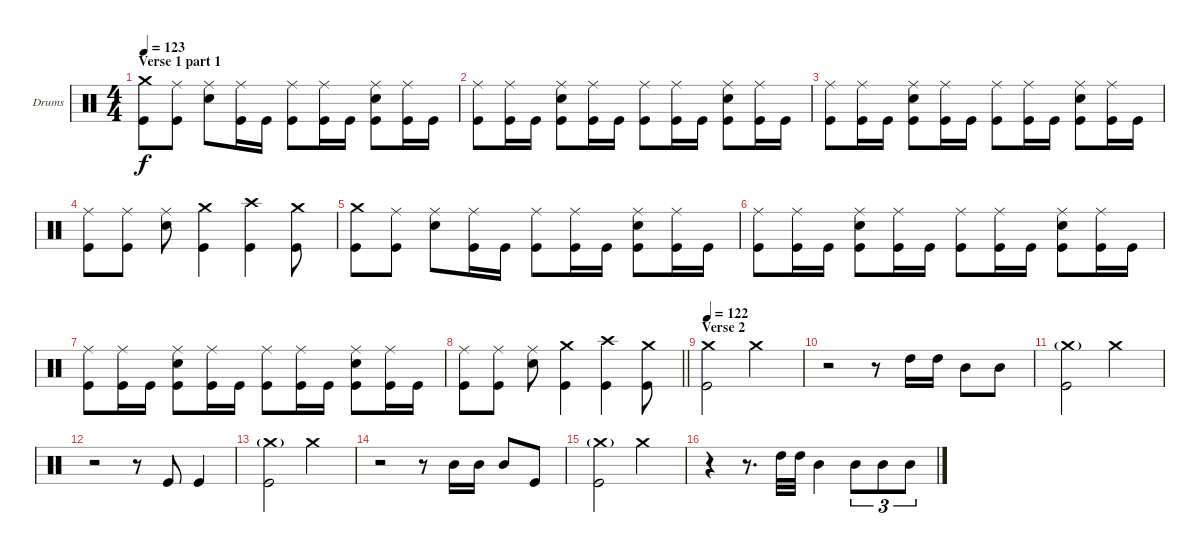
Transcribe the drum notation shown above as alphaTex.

\bracketExtendMode groupsimilarinstruments
\firstSystemTrackNameOrientation horizontal
\otherSystemsTrackNameOrientation horizontal
\track ("Drumkit" "Drums") {instrument percussion}
\staff {score}
\articulation defaults
\ts (4 4)
\section ("" "Verse 1 part 1")
\tempo 123
\clef neutral
\ks c
("Crash medium (hit)" "Kick (hit)").8{dy f} ("Ride (middle)" "Kick (hit)").8 ("Ride (middle)" "Snare (hit) 2").8 ("Ride (middle)" "Kick (hit)").16 "Kick (hit)".16 ("Ride (middle)" "Kick (hit)").8 ("Ride (middle)" "Kick (hit)").16 "Kick (hit)".16 ("Ride (middle)" "Snare (hit) 2" "Kick (hit)").8 ("Ride (middle)" "Kick (hit)").16 "Kick (hit)".16 |
("Ride (middle)" "Kick (hit)").8 ("Ride (middle)" "Kick (hit)").16 "Kick (hit)".16 ("Ride (middle)" "Snare (hit) 2" "Kick (hit)").8 ("Ride (middle)" "Kick (hit)").16 "Kick (hit)".16 ("Ride (middle)" "Kick (hit)").8 ("Ride (middle)" "Kick (hit)").16 "Kick (hit)".16 ("Ride (middle)" "Snare (hit) 2" "Kick (hit)").8 ("Ride (middle)" "Kick (hit)").16 "Kick (hit)".16 |
("Ride (middle)" "Kick (hit)").8 ("Ride (middle)" "Kick (hit)").16 "Kick (hit)".16 ("Ride (middle)" "Snare (hit) 2" "Kick (hit)").8 ("Ride (middle)" "Kick (hit)").16 "Kick (hit)".16 ("Ride (middle)" "Kick (hit)").8 ("Ride (middle)" "Kick (hit)").16 "Kick (hit)".16 ("Ride (middle)" "Snare (hit) 2" "Kick (hit)").8 ("Ride (middle)" "Kick (hit)").16 "Kick (hit)".16 |
("Ride (middle)" "Kick (hit)").8 ("Ride (middle)" "Kick (hit)").8 ("Ride (middle)" "Snare (hit) 2").8 ("Crash medium (hit)" "Kick (hit)").4 ("Crash high (hit)" "Kick (hit)").4 ("Crash medium (hit)" "Kick (hit)").8 |
("Crash medium (hit)" "Kick (hit)").8 ("Ride (middle)" "Kick (hit)").8 ("Ride (middle)" "Snare (hit) 2").8 ("Ride (middle)" "Kick (hit)").16 "Kick (hit)".16 ("Ride (middle)" "Kick (hit)").8 ("Ride (middle)" "Kick (hit)").16 "Kick (hit)".16 ("Ride (middle)" "Snare (hit) 2" "Kick (hit)").8 ("Ride (middle)" "Kick (hit)").16 "Kick (hit)".16 |
("Ride (middle)" "Kick (hit)").8 ("Ride (middle)" "Kick (hit)").16 "Kick (hit)".16 ("Ride (middle)" "Snare (hit) 2" "Kick (hit)").8 ("Ride (middle)" "Kick (hit)").16 "Kick (hit)".16 ("Ride (middle)" "Kick (hit)").8 ("Ride (middle)" "Kick (hit)").16 "Kick (hit)".16 ("Ride (middle)" "Snare (hit) 2" "Kick (hit)").8 ("Ride (middle)" "Kick (hit)").16 "Kick (hit)".16 |
("Ride (middle)" "Kick (hit)").8 ("Ride (middle)" "Kick (hit)").16 "Kick (hit)".16 ("Ride (middle)" "Snare (hit) 2" "Kick (hit)").8 ("Ride (middle)" "Kick (hit)").16 "Kick (hit)".16 ("Ride (middle)" "Kick (hit)").8 ("Ride (middle)" "Kick (hit)").16 "Kick (hit)".16 ("Ride (middle)" "Snare (hit) 2" "Kick (hit)").8 ("Ride (middle)" "Kick (hit)").16 "Kick (hit)".16 |
\barLineRight lightlight
("Ride (middle)" "Kick (hit)").8 ("Ride (middle)" "Kick (hit)").8 ("Ride (middle)" "Snare (hit) 2").8 ("Crash medium (hit)" "Kick (hit)").4 ("Crash high (hit)" "Kick (hit)").4 ("Crash medium (hit)" "Kick (hit)").8 |
\section ("" "Verse 2")
\tempo 122
("Crash medium (hit)" "Kick (hit)").2 "Crash medium (hit)".2 |
r.2 r.8 "High Tom (hit)".16 "High Tom (hit)".16 "Mid Tom (hit)".8 "Mid Tom (hit)".8 |
("Crash medium (hit)"{g} "Kick (hit)").2 "Crash medium (hit)".2 |
r.2 r.8 "Kick (hit)".8 "Kick (hit)".4 |
("Crash medium (hit)"{g} "Kick (hit)").2 "Crash medium (hit)".2 |
r.2 r.8 "Mid Tom (hit)".16 "Mid Tom (hit)".16 "Mid Tom (hit)".8 "Kick (hit)".8 |
("Crash medium (hit)"{g} "Kick (hit)").2 "Crash medium (hit)".2 |
r.4 r.8{d} "High Tom (hit)".32 "High Tom (hit)".32 "Mid Tom (hit)".4 "Mid Tom (hit)".8{tu (3 2)} "Mid Tom (hit)".8{tu (3 2)} "Mid Tom (hit)".8{tu (3 2)}
